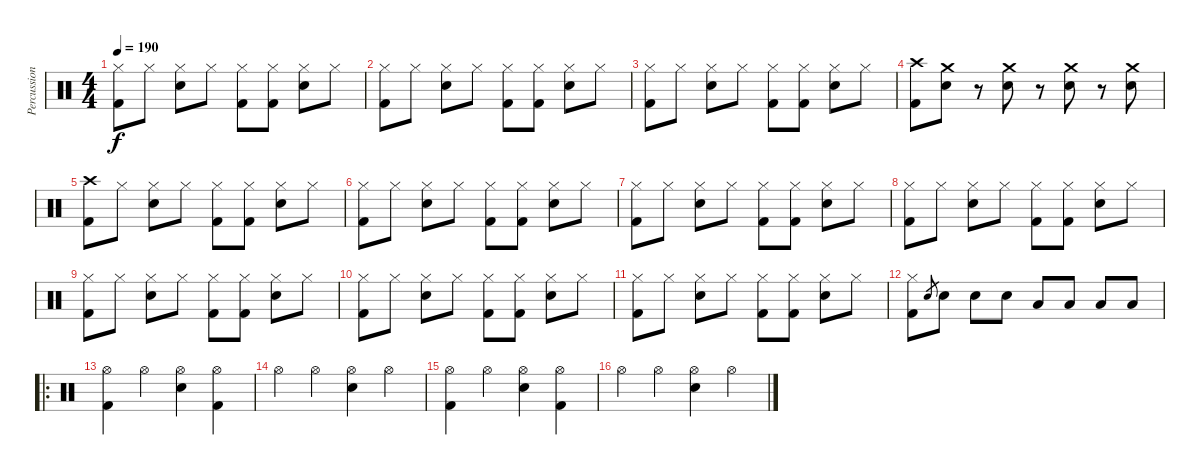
\track ("Percussion" "Percussion") {instrument percussion}
\staff {score}
\articulation defaults
\ts (4 4)
\tempo 190
\clef neutral
\ks c
("Hi-Hat (closed)" "Kick (hit) 2").8{dy f} "Hi-Hat (closed)".8 ("Hi-Hat (closed)" "Electric Snare (hit)").8 "Hi-Hat (closed)".8 ("Hi-Hat (closed)" "Kick (hit) 2").8 ("Hi-Hat (closed)" "Kick (hit) 2").8 ("Hi-Hat (closed)" "Electric Snare (hit)").8 "Hi-Hat (closed)".8 |
("Hi-Hat (closed)" "Kick (hit) 2").8 "Hi-Hat (closed)".8 ("Hi-Hat (closed)" "Electric Snare (hit)").8 "Hi-Hat (closed)".8 ("Hi-Hat (closed)" "Kick (hit) 2").8 ("Hi-Hat (closed)" "Kick (hit) 2").8 ("Hi-Hat (closed)" "Electric Snare (hit)").8 "Hi-Hat (closed)".8 |
("Hi-Hat (closed)" "Kick (hit) 2").8 "Hi-Hat (closed)".8 ("Hi-Hat (closed)" "Electric Snare (hit)").8 "Hi-Hat (closed)".8 ("Hi-Hat (closed)" "Kick (hit) 2").8 ("Hi-Hat (closed)" "Kick (hit) 2").8 ("Hi-Hat (closed)" "Electric Snare (hit)").8 "Hi-Hat (closed)".8 |
("Crash high (hit)" "Kick (hit) 2").8 ("Crash medium (hit)" "Electric Snare (hit)").8 r.8 ("Crash medium (hit)" "Electric Snare (hit)").8 r.8 ("Crash medium (hit)" "Electric Snare (hit)").8 r.8 ("Crash medium (hit)" "Electric Snare (hit)").8 |
("Crash high (hit)" "Kick (hit) 2").8 "Hi-Hat (closed)".8 ("Hi-Hat (closed)" "Electric Snare (hit)").8 "Hi-Hat (closed)".8 ("Hi-Hat (closed)" "Kick (hit) 2").8 ("Hi-Hat (closed)" "Kick (hit) 2").8 ("Hi-Hat (closed)" "Electric Snare (hit)").8 "Hi-Hat (closed)".8 |
("Hi-Hat (closed)" "Kick (hit) 2").8 "Hi-Hat (closed)".8 ("Hi-Hat (closed)" "Electric Snare (hit)").8 "Hi-Hat (closed)".8 ("Hi-Hat (closed)" "Kick (hit) 2").8 ("Hi-Hat (closed)" "Kick (hit) 2").8 ("Hi-Hat (closed)" "Electric Snare (hit)").8 "Hi-Hat (closed)".8 |
("Hi-Hat (closed)" "Kick (hit) 2").8 "Hi-Hat (closed)".8 ("Hi-Hat (closed)" "Electric Snare (hit)").8 "Hi-Hat (closed)".8 ("Hi-Hat (closed)" "Kick (hit) 2").8 ("Hi-Hat (closed)" "Kick (hit) 2").8 ("Hi-Hat (closed)" "Electric Snare (hit)").8 "Hi-Hat (closed)".8 |
("Hi-Hat (closed)" "Kick (hit) 2").8 "Hi-Hat (closed)".8 ("Hi-Hat (closed)" "Electric Snare (hit)").8 "Hi-Hat (closed)".8 ("Hi-Hat (closed)" "Kick (hit) 2").8 ("Hi-Hat (closed)" "Kick (hit) 2").8 ("Hi-Hat (closed)" "Electric Snare (hit)").8 "Hi-Hat (closed)".8 |
("Hi-Hat (closed)" "Kick (hit) 2").8 "Hi-Hat (closed)".8 ("Hi-Hat (closed)" "Electric Snare (hit)").8 "Hi-Hat (closed)".8 ("Hi-Hat (closed)" "Kick (hit) 2").8 ("Hi-Hat (closed)" "Kick (hit) 2").8 ("Hi-Hat (closed)" "Electric Snare (hit)").8 "Hi-Hat (closed)".8 |
("Hi-Hat (closed)" "Kick (hit) 2").8 "Hi-Hat (closed)".8 ("Hi-Hat (closed)" "Electric Snare (hit)").8 "Hi-Hat (closed)".8 ("Hi-Hat (closed)" "Kick (hit) 2").8 ("Hi-Hat (closed)" "Kick (hit) 2").8 ("Hi-Hat (closed)" "Electric Snare (hit)").8 "Hi-Hat (closed)".8 |
("Hi-Hat (closed)" "Kick (hit) 2").8 "Hi-Hat (closed)".8 ("Hi-Hat (closed)" "Electric Snare (hit)").8 "Hi-Hat (closed)".8 ("Hi-Hat (closed)" "Kick (hit) 2").8 ("Hi-Hat (closed)" "Kick (hit) 2").8 ("Hi-Hat (closed)" "Electric Snare (hit)").8 "Hi-Hat (closed)".8 |
("Hi-Hat (closed)" "Kick (hit) 2").8 "Electric Snare (hit)".8{gr} "Electric Snare (hit)".8 "Electric Snare (hit)".8 "Electric Snare (hit)".8 "Low Tom (hit)".8 "Low Tom (hit)".8 "Low Floor Tom (hit)".8 "Low Floor Tom (hit)".8 |
\ro
("Hi-Hat (open)" "Kick (hit) 2").4 "Hi-Hat (open)".4 ("Hi-Hat (open)" "Electric Snare (hit)").4 ("Hi-Hat (open)" "Kick (hit) 2").4 |
"Hi-Hat (open)".4 "Hi-Hat (open)".4 ("Hi-Hat (open)" "Electric Snare (hit)").4 "Hi-Hat (open)".4 |
("Hi-Hat (open)" "Kick (hit) 2").4 "Hi-Hat (open)".4 ("Hi-Hat (open)" "Electric Snare (hit)").4 ("Hi-Hat (open)" "Kick (hit) 2").4 |
"Hi-Hat (open)".4 "Hi-Hat (open)".4 ("Hi-Hat (open)" "Electric Snare (hit)").4 "Hi-Hat (open)".4
